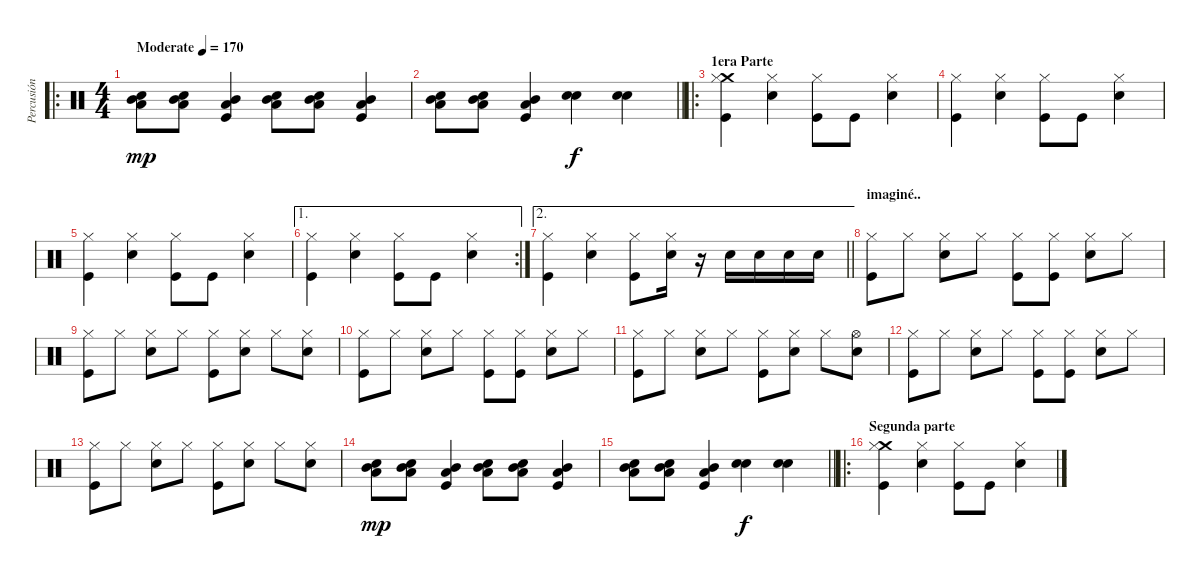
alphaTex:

\track ("Percusión" "Percusión") {instrument percussion}
\staff {score}
\articulation defaults
\ro
\ts (4 4)
\tempo (170 "Moderate")
\clef neutral
\ks c
("Electric Snare (hit)" "Low Floor Tom (hit)" "Mid Tom (hit)").8{dy mp} ("Electric Snare (hit)" "Low Floor Tom (hit)" "Mid Tom (hit)").8 ("Kick (hit)" "Low Floor Tom (hit)" "Mid Tom (hit)").4 ("Electric Snare (hit)" "Low Floor Tom (hit)" "Mid Tom (hit)").8 ("Electric Snare (hit)" "Low Floor Tom (hit)" "Mid Tom (hit)").8 ("Kick (hit)" "Low Floor Tom (hit)" "Mid Tom (hit)").4 |
\barLineRight lightlight
("Electric Snare (hit)" "Low Floor Tom (hit)" "Mid Tom (hit)").8 ("Electric Snare (hit)" "Low Floor Tom (hit)" "Mid Tom (hit)").8 ("Kick (hit)" "Low Floor Tom (hit)" "Mid Tom (hit)").4 ("Electric Snare (hit)" "Electric Snare (hit)").4{dy f} ("Electric Snare (hit)" "Electric Snare (hit)").4 |
\ro
\section ("" "1era Parte")
("Crash medium (hit)" "Hi-Hat (closed)" "Kick (hit)").4 ("Hi-Hat (closed)" "Electric Snare (hit)").4 ("Hi-Hat (closed)" "Kick (hit)").8 "Kick (hit)".8 ("Hi-Hat (closed)" "Electric Snare (hit)").4 |
("Hi-Hat (closed)" "Kick (hit)").4 ("Hi-Hat (closed)" "Electric Snare (hit)").4 ("Hi-Hat (closed)" "Kick (hit)").8 "Kick (hit)".8 ("Hi-Hat (closed)" "Electric Snare (hit)").4 |
("Hi-Hat (closed)" "Kick (hit)").4 ("Hi-Hat (closed)" "Electric Snare (hit)").4 ("Hi-Hat (closed)" "Kick (hit)").8 "Kick (hit)".8 ("Hi-Hat (closed)" "Electric Snare (hit)").4 |
\ae 1
\rc 2
("Hi-Hat (closed)" "Kick (hit)").4 ("Hi-Hat (closed)" "Electric Snare (hit)").4 ("Hi-Hat (closed)" "Kick (hit)").8 "Kick (hit)".8 ("Hi-Hat (closed)" "Electric Snare (hit)").4 |
\ae 2
\barLineRight lightlight
("Hi-Hat (closed)" "Kick (hit)").4 ("Hi-Hat (closed)" "Electric Snare (hit)").4 ("Hi-Hat (closed)" "Kick (hit)").8 ("Hi-Hat (closed)" "Electric Snare (hit)").16 r.16 "Electric Snare (hit)".16 "Electric Snare (hit)".16 "Electric Snare (hit)".16 "Electric Snare (hit)".16 |
\section ("" "imaginé..")
("Hi-Hat (closed)" "Kick (hit)").8 "Hi-Hat (closed)".8 ("Hi-Hat (closed)" "Electric Snare (hit)").8 "Hi-Hat (closed)".8 ("Hi-Hat (closed)" "Kick (hit)").8 ("Hi-Hat (closed)" "Kick (hit)").8 ("Hi-Hat (closed)" "Electric Snare (hit)").8 "Hi-Hat (closed)".8 |
("Hi-Hat (closed)" "Kick (hit)").8 "Hi-Hat (closed)".8 ("Hi-Hat (closed)" "Electric Snare (hit)").8 "Hi-Hat (closed)".8 ("Hi-Hat (closed)" "Kick (hit)").8 ("Hi-Hat (closed)" "Electric Snare (hit)").8 "Hi-Hat (closed)".8 ("Hi-Hat (closed)" "Electric Snare (hit)").8 |
("Hi-Hat (closed)" "Kick (hit)").8 "Hi-Hat (closed)".8 ("Hi-Hat (closed)" "Electric Snare (hit)").8 "Hi-Hat (closed)".8 ("Hi-Hat (closed)" "Kick (hit)").8 ("Hi-Hat (closed)" "Kick (hit)").8 ("Hi-Hat (closed)" "Electric Snare (hit)").8 "Hi-Hat (closed)".8 |
("Hi-Hat (closed)" "Kick (hit)").8 "Hi-Hat (closed)".8 ("Hi-Hat (closed)" "Electric Snare (hit)").8 "Hi-Hat (closed)".8 ("Hi-Hat (closed)" "Kick (hit)").8 ("Hi-Hat (closed)" "Electric Snare (hit)").8 "Hi-Hat (closed)".8 ("Hi-Hat (open)" "Electric Snare (hit)").8 |
("Hi-Hat (closed)" "Kick (hit)").8 "Hi-Hat (closed)".8 ("Hi-Hat (closed)" "Electric Snare (hit)").8 "Hi-Hat (closed)".8 ("Hi-Hat (closed)" "Kick (hit)").8 ("Hi-Hat (closed)" "Kick (hit)").8 ("Hi-Hat (closed)" "Electric Snare (hit)").8 "Hi-Hat (closed)".8 |
("Hi-Hat (closed)" "Kick (hit)").8 "Hi-Hat (closed)".8 ("Hi-Hat (closed)" "Electric Snare (hit)").8 "Hi-Hat (closed)".8 ("Hi-Hat (closed)" "Kick (hit)").8 ("Hi-Hat (closed)" "Electric Snare (hit)").8 "Hi-Hat (closed)".8 ("Hi-Hat (closed)" "Electric Snare (hit)").8 |
("Electric Snare (hit)" "Low Floor Tom (hit)" "Mid Tom (hit)").8{dy mp} ("Electric Snare (hit)" "Low Floor Tom (hit)" "Mid Tom (hit)").8 ("Kick (hit)" "Low Floor Tom (hit)" "Mid Tom (hit)").4 ("Electric Snare (hit)" "Low Floor Tom (hit)" "Mid Tom (hit)").8 ("Electric Snare (hit)" "Low Floor Tom (hit)" "Mid Tom (hit)").8 ("Kick (hit)" "Low Floor Tom (hit)" "Mid Tom (hit)").4 |
\barLineRight lightlight
("Electric Snare (hit)" "Low Floor Tom (hit)" "Mid Tom (hit)").8 ("Electric Snare (hit)" "Low Floor Tom (hit)" "Mid Tom (hit)").8 ("Kick (hit)" "Low Floor Tom (hit)" "Mid Tom (hit)").4 ("Electric Snare (hit)" "Electric Snare (hit)").4{dy f} ("Electric Snare (hit)" "Electric Snare (hit)").4 |
\ro
\section ("" "Segunda parte")
("Crash medium (hit)" "Hi-Hat (closed)" "Kick (hit)").4 ("Hi-Hat (closed)" "Electric Snare (hit)").4 ("Hi-Hat (closed)" "Kick (hit)").8 "Kick (hit)".8 ("Hi-Hat (closed)" "Electric Snare (hit)").4
